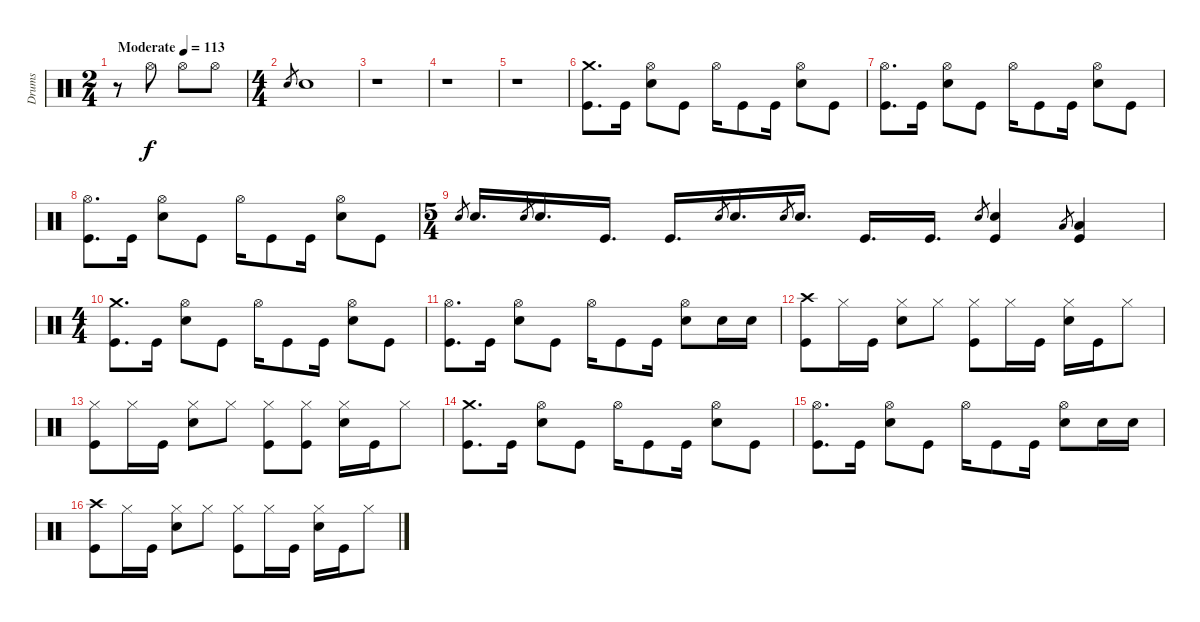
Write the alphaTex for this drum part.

\track ("Drums" "Drums") {instrument percussion}
\staff {score}
\articulation defaults
\ts (2 4)
\tempo (113 "Moderate")
\clef neutral
\ks c
r.8{dy f} "Hi-Hat (open)".8 "Hi-Hat (open)".8 "Hi-Hat (open)".8 |
\ts (4 4)
"Snare (hit) 2".8{gr} "Snare (hit) 2".1 |
r.1 |
r.1 |
r.1 |
("Crash medium (hit)" "Kick (hit)").8{d} "Kick (hit)".16 ("Hi-Hat (open)" "Snare (hit) 2").8 "Kick (hit)".8 "Hi-Hat (open)".16 "Kick (hit)".8 "Kick (hit)".16 ("Hi-Hat (open)" "Snare (hit) 2").8 "Kick (hit)".8 |
("Hi-Hat (open)" "Kick (hit)").8{d} "Kick (hit)".16 ("Hi-Hat (open)" "Snare (hit) 2").8 "Kick (hit)".8 "Hi-Hat (open)".16 "Kick (hit)".8 "Kick (hit)".16 ("Hi-Hat (open)" "Snare (hit) 2").8 "Kick (hit)".8 |
("Hi-Hat (open)" "Kick (hit)").8{d} "Kick (hit)".16 ("Hi-Hat (open)" "Snare (hit) 2").8 "Kick (hit)".8 "Hi-Hat (open)".16 "Kick (hit)".8 "Kick (hit)".16 ("Hi-Hat (open)" "Snare (hit) 2").8 "Kick (hit)".8 |
\ts (5 4)
"Snare (hit) 2".8{gr} "Snare (hit) 2".16{d} "Snare (hit) 2".8{gr} "Snare (hit) 2".16{d} "Kick (hit)".16{d} "Kick (hit)".16{d} "Snare (hit) 2".8{gr} "Snare (hit) 2".16{d} "Snare (hit) 2".8{gr} "Snare (hit) 2".16{d} "Kick (hit)".16{d} "Kick (hit)".16{d} "Snare (hit) 2".8{gr} ("Snare (hit) 2" "Kick (hit)").4 "Low Floor Tom (hit)".8{gr} ("Low Floor Tom (hit)" "Kick (hit)").4 |
\ts (4 4)
("Crash medium (hit)" "Kick (hit)").8{d} "Kick (hit)".16 ("Hi-Hat (open)" "Snare (hit) 2").8 "Kick (hit)".8 "Hi-Hat (open)".16 "Kick (hit)".8 "Kick (hit)".16 ("Hi-Hat (open)" "Snare (hit) 2").8 "Kick (hit)".8 |
("Hi-Hat (open)" "Kick (hit)").8{d} "Kick (hit)".16 ("Hi-Hat (open)" "Snare (hit) 2").8 "Kick (hit)".8 "Hi-Hat (open)".16 "Kick (hit)".8 "Kick (hit)".16 ("Hi-Hat (open)" "Snare (hit) 2").8 "Snare (hit) 2".16 "Snare (hit) 2".16 |
("Crash high (hit)" "Kick (hit)").8 "Hi-Hat (closed)".16 "Kick (hit)".16 ("Hi-Hat (closed)" "Snare (hit) 2").8 "Hi-Hat (closed)".8 ("Hi-Hat (closed)" "Kick (hit)").8 "Hi-Hat (closed)".16 "Kick (hit)".16 ("Hi-Hat (closed)" "Snare (hit) 2").16 "Kick (hit)".16 "Hi-Hat (closed)".8 |
("Hi-Hat (closed)" "Kick (hit)").8 "Hi-Hat (closed)".16 "Kick (hit)".16 ("Hi-Hat (closed)" "Snare (hit) 2").8 "Hi-Hat (closed)".8 ("Hi-Hat (closed)" "Kick (hit)").8 ("Hi-Hat (closed)" "Kick (hit)").8 ("Hi-Hat (closed)" "Snare (hit) 2").16 "Kick (hit)".16 "Hi-Hat (closed)".8 |
("Crash medium (hit)" "Kick (hit)").8{d} "Kick (hit)".16 ("Hi-Hat (open)" "Snare (hit) 2").8 "Kick (hit)".8 "Hi-Hat (open)".16 "Kick (hit)".8 "Kick (hit)".16 ("Hi-Hat (open)" "Snare (hit) 2").8 "Kick (hit)".8 |
("Hi-Hat (open)" "Kick (hit)").8{d} "Kick (hit)".16 ("Hi-Hat (open)" "Snare (hit) 2").8 "Kick (hit)".8 "Hi-Hat (open)".16 "Kick (hit)".8 "Kick (hit)".16 ("Hi-Hat (open)" "Snare (hit) 2").8 "Snare (hit) 2".16 "Snare (hit) 2".16 |
("Crash high (hit)" "Kick (hit)").8 "Hi-Hat (closed)".16 "Kick (hit)".16 ("Hi-Hat (closed)" "Snare (hit) 2").8 "Hi-Hat (closed)".8 ("Hi-Hat (closed)" "Kick (hit)").8 "Hi-Hat (closed)".16 "Kick (hit)".16 ("Hi-Hat (closed)" "Snare (hit) 2").16 "Kick (hit)".16 "Hi-Hat (closed)".8
